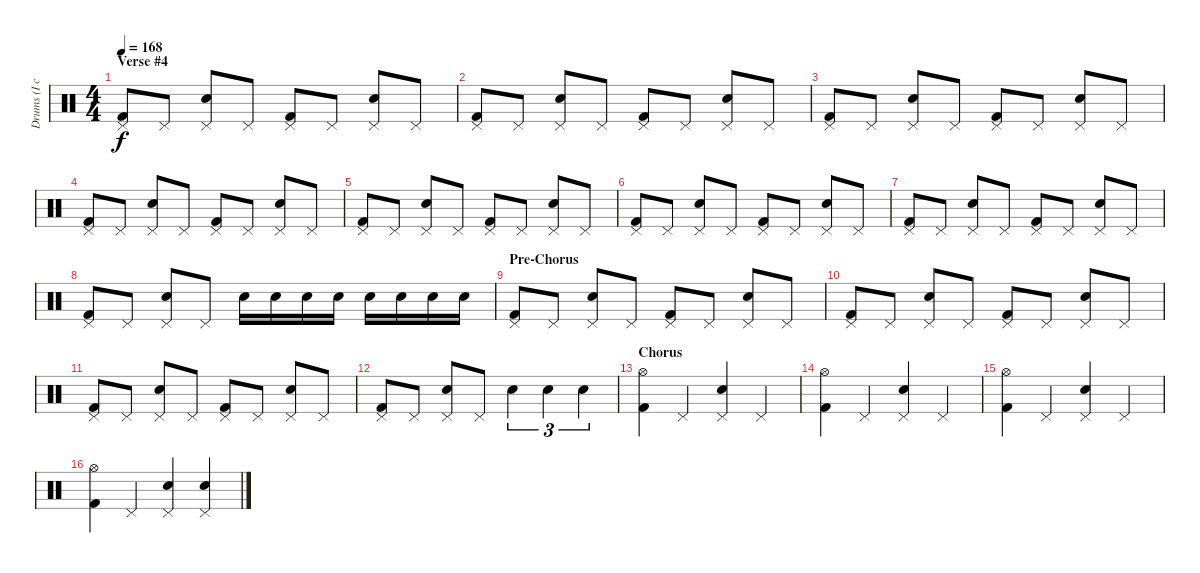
\track ("Drums (I can't tab drums too well...)" "Drums (I c") {instrument percussion}
\staff {score}
\articulation defaults
\ts (4 4)
\section ("" "Verse #4")
\tempo 168
\clef neutral
\ks c
("Pedal Hi-Hat (hit)" "Kick (hit) 2").8{dy f} "Pedal Hi-Hat (hit)".8 ("Pedal Hi-Hat (hit)" "Snare (hit) 2").8 "Pedal Hi-Hat (hit)".8 ("Pedal Hi-Hat (hit)" "Kick (hit) 2").8 "Pedal Hi-Hat (hit)".8 ("Pedal Hi-Hat (hit)" "Snare (hit) 2").8 "Pedal Hi-Hat (hit)".8 |
("Pedal Hi-Hat (hit)" "Kick (hit) 2").8 "Pedal Hi-Hat (hit)".8 ("Pedal Hi-Hat (hit)" "Snare (hit) 2").8 "Pedal Hi-Hat (hit)".8 ("Pedal Hi-Hat (hit)" "Kick (hit) 2").8 "Pedal Hi-Hat (hit)".8 ("Pedal Hi-Hat (hit)" "Snare (hit) 2").8 "Pedal Hi-Hat (hit)".8 |
("Pedal Hi-Hat (hit)" "Kick (hit) 2").8 "Pedal Hi-Hat (hit)".8 ("Pedal Hi-Hat (hit)" "Snare (hit) 2").8 "Pedal Hi-Hat (hit)".8 ("Pedal Hi-Hat (hit)" "Kick (hit) 2").8 "Pedal Hi-Hat (hit)".8 ("Pedal Hi-Hat (hit)" "Snare (hit) 2").8 "Pedal Hi-Hat (hit)".8 |
("Pedal Hi-Hat (hit)" "Kick (hit) 2").8 "Pedal Hi-Hat (hit)".8 ("Pedal Hi-Hat (hit)" "Snare (hit) 2").8 "Pedal Hi-Hat (hit)".8 ("Pedal Hi-Hat (hit)" "Kick (hit) 2").8 "Pedal Hi-Hat (hit)".8 ("Pedal Hi-Hat (hit)" "Snare (hit) 2").8 "Pedal Hi-Hat (hit)".8 |
("Pedal Hi-Hat (hit)" "Kick (hit) 2").8 "Pedal Hi-Hat (hit)".8 ("Pedal Hi-Hat (hit)" "Snare (hit) 2").8 "Pedal Hi-Hat (hit)".8 ("Pedal Hi-Hat (hit)" "Kick (hit) 2").8 "Pedal Hi-Hat (hit)".8 ("Pedal Hi-Hat (hit)" "Snare (hit) 2").8 "Pedal Hi-Hat (hit)".8 |
("Pedal Hi-Hat (hit)" "Kick (hit) 2").8 "Pedal Hi-Hat (hit)".8 ("Pedal Hi-Hat (hit)" "Snare (hit) 2").8 "Pedal Hi-Hat (hit)".8 ("Pedal Hi-Hat (hit)" "Kick (hit) 2").8 "Pedal Hi-Hat (hit)".8 ("Pedal Hi-Hat (hit)" "Snare (hit) 2").8 "Pedal Hi-Hat (hit)".8 |
("Pedal Hi-Hat (hit)" "Kick (hit) 2").8 "Pedal Hi-Hat (hit)".8 ("Pedal Hi-Hat (hit)" "Snare (hit) 2").8 "Pedal Hi-Hat (hit)".8 ("Pedal Hi-Hat (hit)" "Kick (hit) 2").8 "Pedal Hi-Hat (hit)".8 ("Pedal Hi-Hat (hit)" "Snare (hit) 2").8 "Pedal Hi-Hat (hit)".8 |
("Pedal Hi-Hat (hit)" "Kick (hit) 2").8 "Pedal Hi-Hat (hit)".8 ("Pedal Hi-Hat (hit)" "Snare (hit) 2").8 "Pedal Hi-Hat (hit)".8 "Snare (hit) 2".16 "Snare (hit) 2".16 "Snare (hit) 2".16 "Snare (hit) 2".16 "Snare (hit) 2".16 "Snare (hit) 2".16 "Snare (hit) 2".16 "Snare (hit) 2".16 |
\section ("" "Pre-Chorus")
("Pedal Hi-Hat (hit)" "Kick (hit) 2").8 "Pedal Hi-Hat (hit)".8 ("Pedal Hi-Hat (hit)" "Snare (hit) 2").8 "Pedal Hi-Hat (hit)".8 ("Pedal Hi-Hat (hit)" "Kick (hit) 2").8 "Pedal Hi-Hat (hit)".8 ("Pedal Hi-Hat (hit)" "Snare (hit) 2").8 "Pedal Hi-Hat (hit)".8 |
("Pedal Hi-Hat (hit)" "Kick (hit) 2").8 "Pedal Hi-Hat (hit)".8 ("Pedal Hi-Hat (hit)" "Snare (hit) 2").8 "Pedal Hi-Hat (hit)".8 ("Pedal Hi-Hat (hit)" "Kick (hit) 2").8 "Pedal Hi-Hat (hit)".8 ("Pedal Hi-Hat (hit)" "Snare (hit) 2").8 "Pedal Hi-Hat (hit)".8 |
("Pedal Hi-Hat (hit)" "Kick (hit) 2").8 "Pedal Hi-Hat (hit)".8 ("Pedal Hi-Hat (hit)" "Snare (hit) 2").8 "Pedal Hi-Hat (hit)".8 ("Pedal Hi-Hat (hit)" "Kick (hit) 2").8 "Pedal Hi-Hat (hit)".8 ("Pedal Hi-Hat (hit)" "Snare (hit) 2").8 "Pedal Hi-Hat (hit)".8 |
("Pedal Hi-Hat (hit)" "Kick (hit) 2").8 "Pedal Hi-Hat (hit)".8 ("Pedal Hi-Hat (hit)" "Snare (hit) 2").8 "Pedal Hi-Hat (hit)".8 "Snare (hit) 2".4{tu (3 2)} "Snare (hit) 2".4{tu (3 2)} "Snare (hit) 2".4{tu (3 2)} |
\section ("" "Chorus")
("Hi-Hat (open)" "Kick (hit) 2").4 "Pedal Hi-Hat (hit)".4 ("Pedal Hi-Hat (hit)" "Snare (hit) 2").4 "Pedal Hi-Hat (hit)".4 |
("Hi-Hat (open)" "Kick (hit) 2").4 "Pedal Hi-Hat (hit)".4 ("Pedal Hi-Hat (hit)" "Snare (hit) 2").4 "Pedal Hi-Hat (hit)".4 |
("Hi-Hat (open)" "Kick (hit) 2").4 "Pedal Hi-Hat (hit)".4 ("Pedal Hi-Hat (hit)" "Snare (hit) 2").4 "Pedal Hi-Hat (hit)".4 |
("Hi-Hat (open)" "Kick (hit) 2").4 "Pedal Hi-Hat (hit)".4 ("Pedal Hi-Hat (hit)" "Snare (hit) 2").4 ("Pedal Hi-Hat (hit)" "Snare (hit) 2").4
